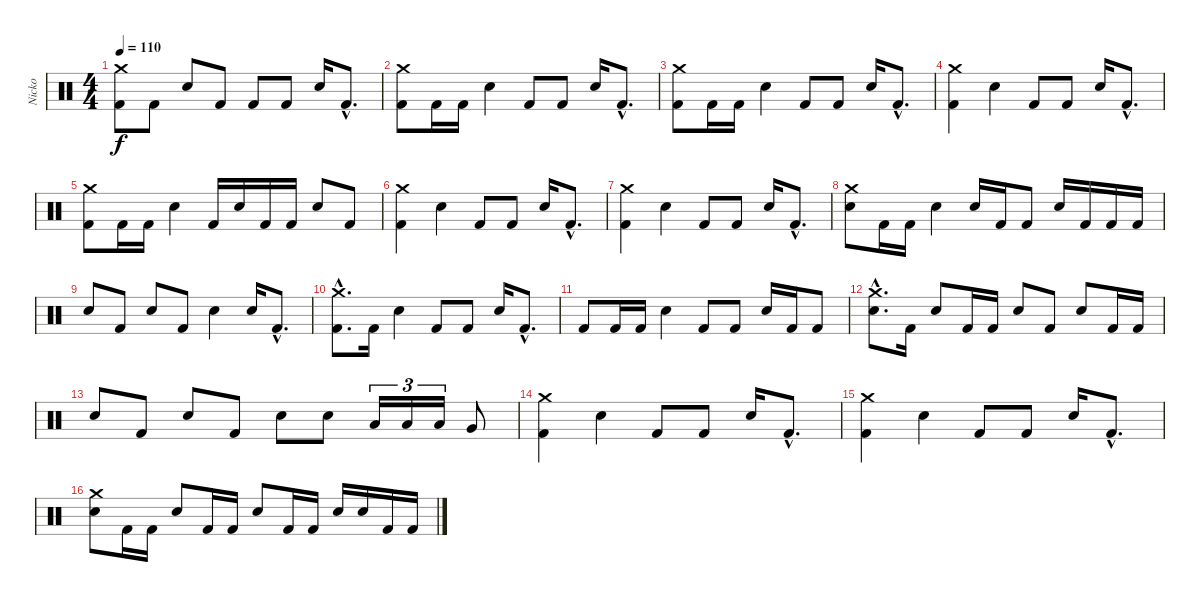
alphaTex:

\track ("Nicko" "Nicko") {instrument percussion}
\staff {score}
\articulation defaults
\ts (4 4)
\tempo 110
\clef neutral
\ks c
("Crash medium (hit)" "Kick (hit) 2").8{dy f} "Kick (hit) 2".8 "Electric Snare (hit)".8 "Kick (hit) 2".8 "Kick (hit) 2".8 "Kick (hit) 2".8 "Electric Snare (hit)".16 "Kick (hit) 2"{hac}.8{d} |
("Crash medium (hit)" "Kick (hit) 2").8 "Kick (hit) 2".16 "Kick (hit) 2".16 "Electric Snare (hit)".4 "Kick (hit) 2".8 "Kick (hit) 2".8 "Electric Snare (hit)".16 "Kick (hit) 2"{hac}.8{d} |
("Crash medium (hit)" "Kick (hit) 2").8 "Kick (hit) 2".16 "Kick (hit) 2".16 "Electric Snare (hit)".4 "Kick (hit) 2".8 "Kick (hit) 2".8 "Electric Snare (hit)".16 "Kick (hit) 2"{hac}.8{d} |
("Crash medium (hit)" "Kick (hit) 2").4 "Electric Snare (hit)".4 "Kick (hit) 2".8 "Kick (hit) 2".8 "Electric Snare (hit)".16 "Kick (hit) 2"{hac}.8{d} |
("Crash medium (hit)" "Kick (hit) 2").8 "Kick (hit) 2".16 "Kick (hit) 2".16 "Electric Snare (hit)".4 "Kick (hit) 2".16 "Electric Snare (hit)".16 "Kick (hit) 2".16 "Kick (hit) 2".16 "Electric Snare (hit)".8 "Kick (hit) 2".8 |
("Crash medium (hit)" "Kick (hit) 2").4 "Electric Snare (hit)".4 "Kick (hit) 2".8 "Kick (hit) 2".8 "Electric Snare (hit)".16 "Kick (hit) 2"{hac}.8{d} |
("Crash medium (hit)" "Kick (hit) 2").4 "Electric Snare (hit)".4 "Kick (hit) 2".8 "Kick (hit) 2".8 "Electric Snare (hit)".16 "Kick (hit) 2"{hac}.8{d} |
("Crash medium (hit)" "Electric Snare (hit)").8 "Kick (hit) 2".16 "Kick (hit) 2".16 "Electric Snare (hit)".4 "Electric Snare (hit)".16 "Kick (hit) 2".16 "Kick (hit) 2".8 "Electric Snare (hit)".16 "Kick (hit) 2".16 "Kick (hit) 2".16 "Kick (hit) 2".16 |
"Electric Snare (hit)".8 "Kick (hit) 2".8 "Electric Snare (hit)".8 "Kick (hit) 2".8 "Electric Snare (hit)".4 "Electric Snare (hit)".16 "Kick (hit) 2"{hac}.8{d} |
("Crash medium (hit)"{hac} "Kick (hit) 2"{hac}).8{d} "Kick (hit) 2".16 "Electric Snare (hit)".4 "Kick (hit) 2".8 "Kick (hit) 2".8 "Electric Snare (hit)".16 "Kick (hit) 2"{hac}.8{d} |
"Kick (hit) 2".8 "Kick (hit) 2".16 "Kick (hit) 2".16 "Electric Snare (hit)".4 "Kick (hit) 2".8 "Kick (hit) 2".8 "Electric Snare (hit)".16 "Kick (hit) 2".16 "Kick (hit) 2".8 |
("Crash medium (hit)"{hac} "Electric Snare (hit)"{hac}).8{d} "Kick (hit) 2".16 "Electric Snare (hit)".8 "Kick (hit) 2".16 "Kick (hit) 2".16 "Electric Snare (hit)".8 "Kick (hit) 2".8 "Electric Snare (hit)".8 "Kick (hit) 2".16 "Kick (hit) 2".16 |
"Electric Snare (hit)".8 "Kick (hit) 2".8 "Electric Snare (hit)".8 "Kick (hit) 2".8 "Electric Snare (hit)".8 "Electric Snare (hit)".8 "Low Tom (hit)".16{tu (3 2)} "Low Tom (hit)".16{tu (3 2)} "Low Tom (hit)".16{tu (3 2)} "Very Low Tom (hit)".8 |
("Crash medium (hit)" "Kick (hit) 2").4 "Electric Snare (hit)".4 "Kick (hit) 2".8 "Kick (hit) 2".8 "Electric Snare (hit)".16 "Kick (hit) 2"{hac}.8{d} |
("Crash medium (hit)" "Kick (hit) 2").4 "Electric Snare (hit)".4 "Kick (hit) 2".8 "Kick (hit) 2".8 "Electric Snare (hit)".16 "Kick (hit) 2"{hac}.8{d} |
("Crash medium (hit)" "Electric Snare (hit)").8 "Kick (hit) 2".16 "Kick (hit) 2".16 "Electric Snare (hit)".8 "Kick (hit) 2".16 "Kick (hit) 2".16 "Electric Snare (hit)".8 "Kick (hit) 2".16 "Kick (hit) 2".16 "Electric Snare (hit)".16 "Electric Snare (hit)".16 "Kick (hit) 2".16 "Kick (hit) 2".16
